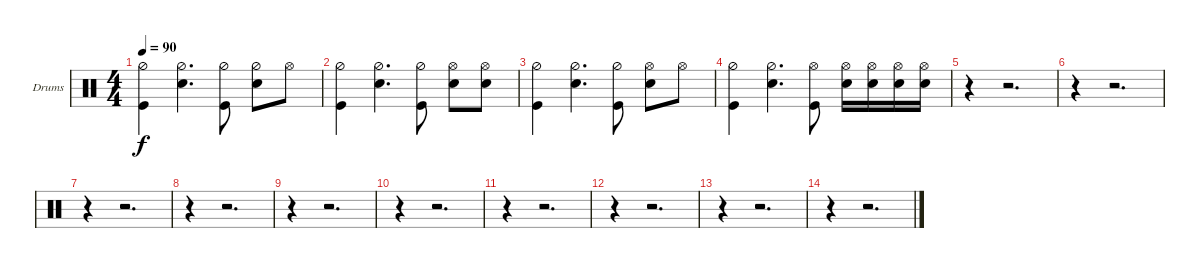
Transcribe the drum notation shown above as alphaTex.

\bracketExtendMode groupsimilarinstruments
\firstSystemTrackNameOrientation horizontal
\otherSystemsTrackNameOrientation horizontal
\track ("Drumkit" "Drums") {instrument percussion}
\staff {score}
\articulation defaults
\ts (4 4)
\tempo 90
\clef neutral
\ks c
("Kick (hit)" "Hi-Hat (half)").4{dy f} ("Snare (hit) 2" "Hi-Hat (half)").4{d} ("Kick (hit)" "Hi-Hat (half)").8 ("Snare (hit) 2" "Hi-Hat (half)").8 "Hi-Hat (open)".8 |
("Kick (hit)" "Hi-Hat (half)").4 ("Snare (hit) 2" "Hi-Hat (half)").4{d} ("Kick (hit)" "Hi-Hat (half)").8 ("Snare (hit) 2" "Hi-Hat (open)").8 ("Snare (hit) 2" "Hi-Hat (open)").8 |
("Kick (hit)" "Hi-Hat (half)").4 ("Snare (hit) 2" "Hi-Hat (half)").4{d} ("Kick (hit)" "Hi-Hat (half)").8 ("Snare (hit) 2" "Hi-Hat (open)").8 "Hi-Hat (open)".8 |
("Kick (hit)" "Hi-Hat (half)").4 ("Snare (hit) 2" "Hi-Hat (half)").4{d} ("Kick (hit)" "Hi-Hat (open)").8 ("Snare (hit) 2" "Hi-Hat (open)").16 ("Snare (hit) 2" "Hi-Hat (open)").16 ("Snare (hit) 2" "Hi-Hat (open)").16 ("Snare (hit) 2" "Hi-Hat (open)").16 |
r.4 r.2{d} |
r.4 r.2{d} |
r.4 r.2{d} |
r.4 r.2{d} |
r.4 r.2{d} |
r.4 r.2{d} |
r.4 r.2{d} |
r.4 r.2{d} |
r.4 r.2{d} |
r.4 r.2{d}
